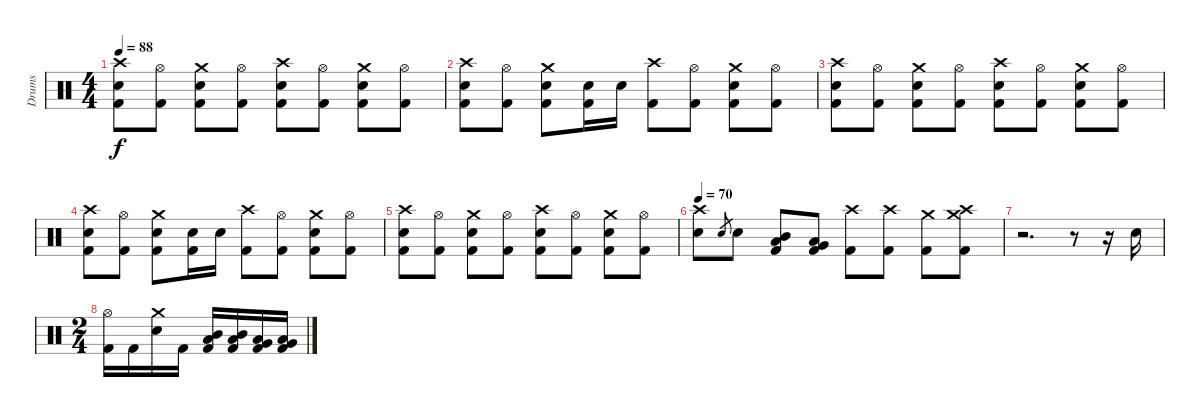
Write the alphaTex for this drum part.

\track ("Drums" "Drums") {instrument percussion}
\staff {score}
\articulation defaults
\ts (4 4)
\tempo 88
\clef neutral
\ks c
("Crash high (hit)" "Snare (hit) 2" "Kick (hit) 2").8{dy f} ("Hi-Hat (open)" "Kick (hit) 2").8 ("Crash medium (hit)" "Snare (hit) 2" "Kick (hit) 2").8 ("Hi-Hat (open)" "Kick (hit) 2").8 ("Crash high (hit)" "Snare (hit) 2" "Kick (hit) 2").8 ("Hi-Hat (open)" "Kick (hit) 2").8 ("Crash medium (hit)" "Snare (hit) 2" "Kick (hit) 2").8 ("Hi-Hat (open)" "Kick (hit) 2").8 |
("Crash high (hit)" "Snare (hit) 2" "Kick (hit) 2").8 ("Hi-Hat (open)" "Kick (hit) 2").8 ("Crash medium (hit)" "Snare (hit) 2" "Kick (hit) 2").8 ("Snare (hit) 2" "Kick (hit) 2").16 "Snare (hit) 2".16 ("Crash high (hit)" "Kick (hit) 2").8 ("Hi-Hat (open)" "Kick (hit) 2").8 ("Crash medium (hit)" "Snare (hit) 2" "Kick (hit) 2").8 ("Hi-Hat (open)" "Kick (hit) 2").8 |
("Crash high (hit)" "Snare (hit) 2" "Kick (hit) 2").8 ("Hi-Hat (open)" "Kick (hit) 2").8 ("Crash medium (hit)" "Snare (hit) 2" "Kick (hit) 2").8 ("Hi-Hat (open)" "Kick (hit) 2").8 ("Crash high (hit)" "Snare (hit) 2" "Kick (hit) 2").8 ("Hi-Hat (open)" "Kick (hit) 2").8 ("Crash medium (hit)" "Snare (hit) 2" "Kick (hit) 2").8 ("Hi-Hat (open)" "Kick (hit) 2").8 |
("Crash high (hit)" "Snare (hit) 2" "Kick (hit) 2").8 ("Hi-Hat (open)" "Kick (hit) 2").8 ("Crash medium (hit)" "Snare (hit) 2" "Kick (hit) 2").8 ("Snare (hit) 2" "Kick (hit) 2").16 "Snare (hit) 2".16 ("Crash high (hit)" "Kick (hit) 2").8 ("Hi-Hat (open)" "Kick (hit) 2").8 ("Crash medium (hit)" "Snare (hit) 2" "Kick (hit) 2").8 ("Hi-Hat (open)" "Kick (hit) 2").8 |
("Crash high (hit)" "Snare (hit) 2" "Kick (hit) 2").8 ("Hi-Hat (open)" "Kick (hit) 2").8 ("Crash medium (hit)" "Snare (hit) 2" "Kick (hit) 2").8 ("Hi-Hat (open)" "Kick (hit) 2").8 ("Crash high (hit)" "Snare (hit) 2" "Kick (hit) 2").8 ("Hi-Hat (open)" "Kick (hit) 2").8 ("Crash medium (hit)" "Snare (hit) 2" "Kick (hit) 2").8 ("Hi-Hat (open)" "Kick (hit) 2").8 |
\tempo 70
("Crash high (hit)" "Snare (hit) 2").8 "Snare (hit) 2".8{gr} "Snare (hit) 2".8 ("Mid Tom (hit)" "Low Tom (hit)" "Kick (hit) 2").8 ("Low Tom (hit)" "Very Low Tom (hit)" "Kick (hit) 2").8 ("Crash high (hit)" "Kick (hit) 2").8 ("Crash high (hit)" "Kick (hit) 2").8 ("Crash medium (hit)" "Kick (hit) 2").8 ("Crash high (hit)" "Crash medium (hit)" "Kick (hit) 2").8 |
r.2{d} r.8 r.16 "Snare (hit) 2".16 |
\ts (2 4)
("Hi-Hat (open)" "Kick (hit) 2").16 "Kick (hit) 2".16 ("Crash medium (hit)" "Snare (hit) 2").16 "Kick (hit) 2".16 ("Mid Tom (hit)" "Low Tom (hit)" "Kick (hit) 2").16 ("Mid Tom (hit)" "Low Tom (hit)" "Kick (hit) 2").16 ("Low Tom (hit)" "Very Low Tom (hit)" "Kick (hit) 2").16 ("Low Tom (hit)" "Very Low Tom (hit)" "Kick (hit) 2").16
